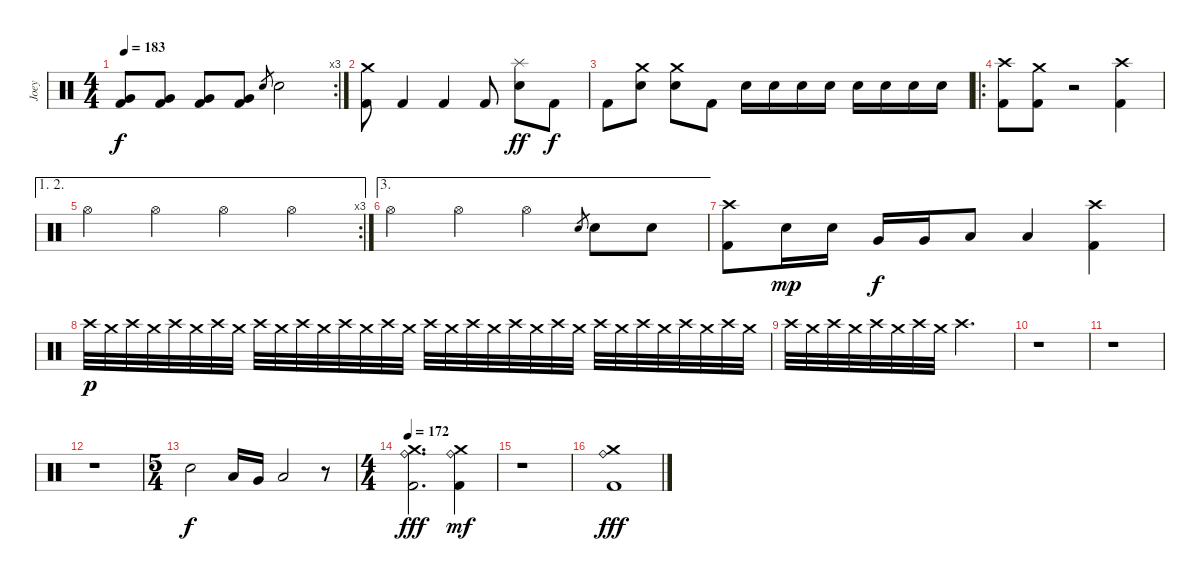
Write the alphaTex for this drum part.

\track ("Joey" "Joey") {instrument percussion}
\staff {score}
\articulation defaults
\rc 3
\ts (4 4)
\tempo 183
\clef neutral
\ks c
("Very Low Tom (hit)" "Kick (hit) 2").8{dy f} ("Very Low Tom (hit)" "Kick (hit) 2").8 ("Very Low Tom (hit)" "Kick (hit) 2").8 ("Very Low Tom (hit)" "Kick (hit) 2").8 "Electric Snare (hit)".8{gr} "Electric Snare (hit)".2 |
("Crash medium (hit)" "Kick (hit) 2").8 "Kick (hit) 2".4 "Kick (hit) 2".4 "Kick (hit) 2".8 ("Splash (hit)" "Electric Snare (hit)").8{dy ff} "Kick (hit) 2".8{dy f} |
"Kick (hit) 2".8 ("Crash medium (hit)" "Electric Snare (hit)").8 ("Crash medium (hit)" "Electric Snare (hit)").8 "Kick (hit) 2".8 "Electric Snare (hit)".16 "Electric Snare (hit)".16 "Electric Snare (hit)".16 "Electric Snare (hit)".16 "Electric Snare (hit)".16 "Electric Snare (hit)".16 "Electric Snare (hit)".16 "Electric Snare (hit)".16 |
\ro
("Crash high (hit)" "Kick (hit) 2").8 ("Crash medium (hit)" "Kick (hit) 2").8 r.2 ("Crash high (hit)" "Kick (hit) 2").4 |
\ae (1 2)
\rc 3 "Hi-Hat (open)".4 "Hi-Hat (open)".4 "Hi-Hat (open)".4 "Hi-Hat (open)".4
|
\ae 3 "Hi-Hat (open)".4 "Hi-Hat (open)".4 "Hi-Hat (open)".4 "Electric Snare (hit)".8{gr} "Electric Snare (hit)".8 "Electric Snare (hit)".8
|
("Crash high (hit)" "Kick (hit) 2").8 "Electric Snare (hit)".16{dy mp} "Electric Snare (hit)".16 "Very Low Tom (hit)".16{dy f} "Very Low Tom (hit)".16 "Low Floor Tom (hit)".8 "Low Floor Tom (hit)".4 ("Crash high (hit)" "Kick (hit) 2").4 |
"Crash high (hit)".32{dy p} "Crash medium (hit)".32 "Crash high (hit)".32 "Crash medium (hit)".32 "Crash high (hit)".32 "Crash medium (hit)".32 "Crash high (hit)".32 "Crash medium (hit)".32 "Crash high (hit)".32 "Crash medium (hit)".32 "Crash high (hit)".32 "Crash medium (hit)".32 "Crash high (hit)".32 "Crash medium (hit)".32 "Crash high (hit)".32 "Crash medium (hit)".32 "Crash high (hit)".32 "Crash medium (hit)".32 "Crash high (hit)".32 "Crash medium (hit)".32 "Crash high (hit)".32 "Crash medium (hit)".32 "Crash high (hit)".32 "Crash medium (hit)".32 "Crash high (hit)".32 "Crash medium (hit)".32 "Crash high (hit)".32 "Crash medium (hit)".32 "Crash high (hit)".32 "Crash medium (hit)".32 "Crash high (hit)".32 "Crash medium (hit)".32 |
"Crash high (hit)".32 "Crash medium (hit)".32 "Crash high (hit)".32 "Crash medium (hit)".32 "Crash high (hit)".32 "Crash medium (hit)".32 "Crash high (hit)".32 "Crash medium (hit)".32 "Crash high (hit)".2{d} |
r.1 |
r.1 |
r.1 |
\ts (5 4)
"Electric Snare (hit)".2{dy f} "Low Tom (hit)".16 "Very Low Tom (hit)".16 "Low Tom (hit)".2 r.8 |
\ts (4 4)
\tempo 172
("Crash medium (hit)" "Ride (bell)" "Kick (hit) 2").2{d dy fff} ("Crash medium (hit)" "Ride (bell)" "Kick (hit) 2").4{dy mf} |
r.1 |
("Crash medium (hit)" "Ride (bell)" "Kick (hit) 2").1{dy fff}
